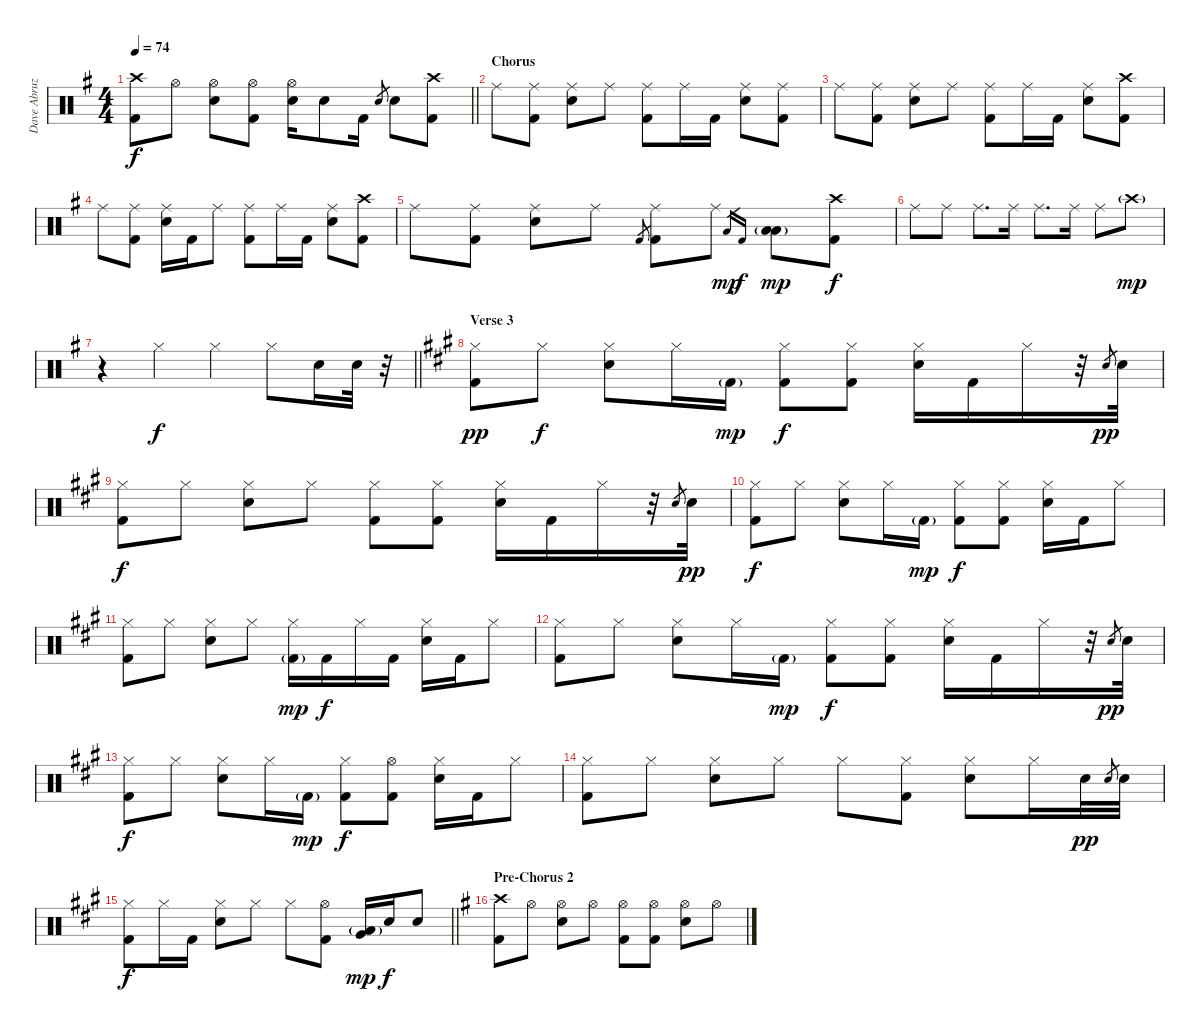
\track ("Dave Abruzzese" "Dave Abruz") {instrument percussion}
\staff {score}
\articulation defaults
\ts (4 4)
\tempo 74
\clef neutral
\barLineRight lightlight
\ks eminor
("Crash high (hit)" "Kick (hit) 2").8{dy f} "Hi-Hat (open)".8 ("Hi-Hat (open)" "Electric Snare (hit)").8 ("Hi-Hat (open)" "Kick (hit) 2").8 ("Hi-Hat (open)" "Electric Snare (hit)").16 "Electric Snare (hit)".8 "Kick (hit) 2".16 "Electric Snare (hit)".8{gr} "Electric Snare (hit)".8 ("Crash high (hit)" "Kick (hit) 2").8 |
\section ("" "Chorus")
"Ride (middle)".8 ("Ride (middle)" "Kick (hit) 2").8 ("Ride (middle)" "Electric Snare (hit)").8 "Ride (middle)".8 ("Ride (middle)" "Kick (hit) 2").8 "Ride (middle)".16 "Kick (hit) 2".16 ("Ride (middle)" "Electric Snare (hit)").8 ("Ride (middle)" "Kick (hit) 2").8 |
"Ride (middle)".8 ("Ride (middle)" "Kick (hit) 2").8 ("Ride (middle)" "Electric Snare (hit)").8 "Ride (middle)".8 ("Ride (middle)" "Kick (hit) 2").8 "Ride (middle)".16 "Kick (hit) 2".16 ("Ride (middle)" "Electric Snare (hit)").8 ("Crash high (hit)" "Kick (hit) 2").8 |
"Ride (middle)".8 ("Ride (middle)" "Kick (hit) 2").8 ("Ride (middle)" "Electric Snare (hit)").16 "Kick (hit) 2".16 "Ride (middle)".8 ("Ride (middle)" "Kick (hit) 2").8 "Ride (middle)".16 "Kick (hit) 2".16 ("Ride (middle)" "Electric Snare (hit)").8 ("Crash high (hit)" "Kick (hit) 2").8 |
"Ride (middle)".8 ("Ride (middle)" "Kick (hit) 2").8 ("Ride (middle)" "Electric Snare (hit)").8 "Ride (middle)".8 "Kick (hit) 2".8{gr} ("Ride (middle)" "Kick (hit) 2").8 "Ride (middle)".8 "Low Floor Tom (hit)".16{gr dy mp} "Kick (hit) 2".16{gr dy f} ("Low Floor Tom (hit)"{g} "Low Floor Tom (hit)").8{dy mp} ("Crash high (hit)" "Kick (hit) 2").8{dy f} |
"Ride (middle)".8 "Ride (middle)".8 "Ride (middle)".8{d} "Ride (middle)".16 "Ride (middle)".8{d} "Ride (middle)".16 "Ride (middle)".8 "Crash high (hit)"{g}.8{dy mp} |
\barLineRight lightlight
r.4 "Hi-Hat (closed)".4{dy f} "Hi-Hat (closed)".4 "Hi-Hat (closed)".8 "Electric Snare (hit)".16 "Electric Snare (hit)".32 r.32 |
\section ("" "Verse 3")
\ks a
("Hi-Hat (closed)" "Kick (hit) 2").8{dy pp} "Hi-Hat (closed)".8{dy f} ("Hi-Hat (closed)" "Electric Snare (hit)").8 "Hi-Hat (closed)".16 "Kick (hit) 2"{g}.16{dy mp} ("Hi-Hat (closed)" "Kick (hit) 2").8{dy f} ("Hi-Hat (closed)" "Kick (hit) 2").8 ("Hi-Hat (closed)" "Electric Snare (hit)").16 "Kick (hit) 2".16 "Hi-Hat (closed)".16 r.32 "Electric Snare (hit)".8{gr dy pp} "Electric Snare (hit)".32 |
("Hi-Hat (closed)" "Kick (hit) 2").8{dy f} "Hi-Hat (closed)".8 ("Hi-Hat (closed)" "Electric Snare (hit)").8 "Hi-Hat (closed)".8 ("Hi-Hat (closed)" "Kick (hit) 2").8 ("Hi-Hat (closed)" "Kick (hit) 2").8 ("Hi-Hat (closed)" "Electric Snare (hit)").16 "Kick (hit) 2".16 "Hi-Hat (closed)".16 r.32 "Electric Snare (hit)".8{gr} "Electric Snare (hit)".32{dy pp} |
("Hi-Hat (closed)" "Kick (hit) 2").8{dy f} "Hi-Hat (closed)".8 ("Hi-Hat (closed)" "Electric Snare (hit)").8 "Hi-Hat (closed)".16 "Kick (hit) 2"{g}.16{dy mp} ("Hi-Hat (closed)" "Kick (hit) 2").8{dy f} ("Hi-Hat (closed)" "Kick (hit) 2").8 ("Hi-Hat (closed)" "Electric Snare (hit)").16 "Kick (hit) 2".16 "Hi-Hat (closed)".8 |
("Hi-Hat (closed)" "Kick (hit) 2").8 "Hi-Hat (closed)".8 ("Hi-Hat (closed)" "Electric Snare (hit)").8 "Hi-Hat (closed)".8 ("Hi-Hat (closed)" "Kick (hit) 2"{g}).16{dy mp} "Kick (hit) 2".16{dy f} "Hi-Hat (closed)".16 "Kick (hit) 2".16 ("Hi-Hat (closed)" "Electric Snare (hit)").16 "Kick (hit) 2".16 "Hi-Hat (closed)".8 |
("Hi-Hat (closed)" "Kick (hit) 2").8 "Hi-Hat (closed)".8 ("Hi-Hat (closed)" "Electric Snare (hit)").8 "Hi-Hat (closed)".16 "Kick (hit) 2"{g}.16{dy mp} ("Hi-Hat (closed)" "Kick (hit) 2").8{dy f} ("Hi-Hat (closed)" "Kick (hit) 2").8 ("Hi-Hat (closed)" "Electric Snare (hit)").16 "Kick (hit) 2".16 "Hi-Hat (closed)".16 r.32 "Electric Snare (hit)".8{gr dy pp} "Electric Snare (hit)".32 |
("Hi-Hat (closed)" "Kick (hit) 2").8{dy f} "Hi-Hat (closed)".8 ("Hi-Hat (closed)" "Electric Snare (hit)").8 "Hi-Hat (closed)".16 "Kick (hit) 2"{g}.16{dy mp} ("Hi-Hat (closed)" "Kick (hit) 2").8{dy f} ("Hi-Hat (open)" "Kick (hit) 2").8 ("Hi-Hat (closed)" "Electric Snare (hit)").16 "Kick (hit) 2".16 "Hi-Hat (closed)".8 |
("Hi-Hat (closed)" "Kick (hit) 2").8 "Hi-Hat (closed)".8 ("Hi-Hat (closed)" "Electric Snare (hit)").8 "Hi-Hat (closed)".8 "Hi-Hat (closed)".8 ("Hi-Hat (closed)" "Kick (hit) 2").8 ("Hi-Hat (closed)" "Electric Snare (hit)").8 "Hi-Hat (closed)".16 "Electric Snare (hit)".32{dy pp} "Electric Snare (hit)".8{gr} "Electric Snare (hit)".32 |
\barLineRight lightlight
("Hi-Hat (closed)" "Kick (hit) 2").8{dy f} "Hi-Hat (closed)".16 "Kick (hit) 2".16 ("Hi-Hat (closed)" "Electric Snare (hit)").8 "Hi-Hat (closed)".8 "Hi-Hat (closed)".8 ("Hi-Hat (open)" "Kick (hit) 2").8 ("Very Low Tom (hit)" "Low Floor Tom (hit)"{g}).16{dy mp} "Electric Snare (hit)".16{dy f} "Electric Snare (hit)".8 |
\section ("" "Pre-Chorus 2")
\ks eminor
("Crash high (hit)" "Kick (hit) 2").8 "Hi-Hat (open)".8 ("Hi-Hat (open)" "Electric Snare (hit)").8 "Hi-Hat (open)".8 ("Hi-Hat (open)" "Kick (hit) 2").8 ("Hi-Hat (open)" "Kick (hit) 2").8 ("Hi-Hat (open)" "Electric Snare (hit)").8 "Hi-Hat (open)".8
